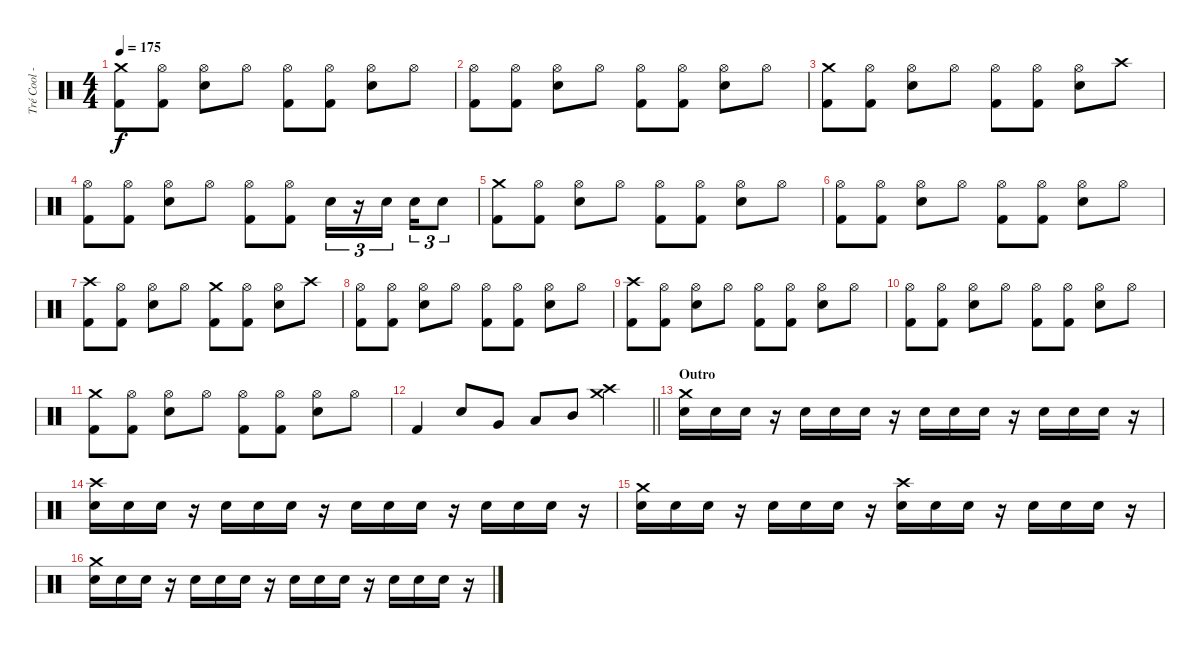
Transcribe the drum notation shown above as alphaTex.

\track ("Tré Cool - Drums" "Tré Cool -") {instrument percussion}
\staff {score}
\articulation defaults
\ts (4 4)
\tempo 175
\clef neutral
\ks c
("Crash medium (hit)" "Kick (hit) 2").8{dy f} ("Hi-Hat (open)" "Kick (hit) 2").8 ("Hi-Hat (open)" "Electric Snare (hit)").8 "Hi-Hat (open)".8 ("Hi-Hat (open)" "Kick (hit) 2").8 ("Hi-Hat (open)" "Kick (hit) 2").8 ("Hi-Hat (open)" "Electric Snare (hit)").8 "Hi-Hat (open)".8 |
("Hi-Hat (open)" "Kick (hit) 2").8 ("Hi-Hat (open)" "Kick (hit) 2").8 ("Hi-Hat (open)" "Electric Snare (hit)").8 "Hi-Hat (open)".8 ("Hi-Hat (open)" "Kick (hit) 2").8 ("Hi-Hat (open)" "Kick (hit) 2").8 ("Hi-Hat (open)" "Electric Snare (hit)").8 "Hi-Hat (open)".8 |
("Crash medium (hit)" "Kick (hit) 2").8 ("Hi-Hat (open)" "Kick (hit) 2").8 ("Hi-Hat (open)" "Electric Snare (hit)").8 "Hi-Hat (open)".8 ("Hi-Hat (open)" "Kick (hit) 2").8 ("Hi-Hat (open)" "Kick (hit) 2").8 ("Hi-Hat (open)" "Electric Snare (hit)").8 "Crash high (hit)".8 |
("Hi-Hat (open)" "Kick (hit) 2").8 ("Hi-Hat (open)" "Kick (hit) 2").8 ("Hi-Hat (open)" "Electric Snare (hit)").8 "Hi-Hat (open)".8 ("Hi-Hat (open)" "Kick (hit) 2").8 ("Hi-Hat (open)" "Kick (hit) 2").8 "Electric Snare (hit)".16{tu (3 2)} r.16{tu (3 2)} "Electric Snare (hit)".16{tu (3 2) beam splitsecondary} "Electric Snare (hit)".16{tu (3 2)} "Electric Snare (hit)".8{tu (3 2)} |
("Crash medium (hit)" "Kick (hit) 2").8 ("Hi-Hat (open)" "Kick (hit) 2").8 ("Hi-Hat (open)" "Electric Snare (hit)").8 "Hi-Hat (open)".8 ("Hi-Hat (open)" "Kick (hit) 2").8 ("Hi-Hat (open)" "Kick (hit) 2").8 ("Hi-Hat (open)" "Electric Snare (hit)").8 "Hi-Hat (open)".8 |
("Hi-Hat (open)" "Kick (hit) 2").8 ("Hi-Hat (open)" "Kick (hit) 2").8 ("Hi-Hat (open)" "Electric Snare (hit)").8 "Hi-Hat (open)".8 ("Hi-Hat (open)" "Kick (hit) 2").8 ("Hi-Hat (open)" "Kick (hit) 2").8 ("Hi-Hat (open)" "Electric Snare (hit)").8 "Hi-Hat (open)".8 |
("Crash high (hit)" "Kick (hit) 2").8 ("Hi-Hat (open)" "Kick (hit) 2").8 ("Hi-Hat (open)" "Electric Snare (hit)").8 "Hi-Hat (open)".8 ("Crash medium (hit)" "Kick (hit) 2").8 ("Hi-Hat (open)" "Kick (hit) 2").8 ("Hi-Hat (open)" "Electric Snare (hit)").8 "Crash high (hit)".8 |
("Hi-Hat (open)" "Kick (hit) 2").8 ("Hi-Hat (open)" "Kick (hit) 2").8 ("Hi-Hat (open)" "Electric Snare (hit)").8 "Hi-Hat (open)".8 ("Hi-Hat (open)" "Kick (hit) 2").8 ("Hi-Hat (open)" "Kick (hit) 2").8 ("Hi-Hat (open)" "Electric Snare (hit)").8 "Hi-Hat (open)".8 |
("Crash high (hit)" "Kick (hit) 2").8 ("Hi-Hat (open)" "Kick (hit) 2").8 ("Hi-Hat (open)" "Electric Snare (hit)").8 "Hi-Hat (open)".8 ("Hi-Hat (open)" "Kick (hit) 2").8 ("Hi-Hat (open)" "Kick (hit) 2").8 ("Hi-Hat (open)" "Electric Snare (hit)").8 "Hi-Hat (open)".8 |
("Hi-Hat (open)" "Kick (hit) 2").8 ("Hi-Hat (open)" "Kick (hit) 2").8 ("Hi-Hat (open)" "Electric Snare (hit)").8 "Hi-Hat (open)".8 ("Hi-Hat (open)" "Kick (hit) 2").8 ("Hi-Hat (open)" "Kick (hit) 2").8 ("Hi-Hat (open)" "Electric Snare (hit)").8 "Hi-Hat (open)".8 |
("Crash medium (hit)" "Kick (hit) 2").8 ("Hi-Hat (open)" "Kick (hit) 2").8 ("Hi-Hat (open)" "Electric Snare (hit)").8 "Hi-Hat (open)".8 ("Hi-Hat (open)" "Kick (hit) 2").8 ("Hi-Hat (open)" "Kick (hit) 2").8 ("Hi-Hat (open)" "Electric Snare (hit)").8 "Hi-Hat (open)".8 |
\barLineRight lightlight "Kick (hit) 2".4 "Electric Snare (hit)".8 "Very Low Tom (hit)".8 "Low Tom (hit)".8 "Mid Tom (hit)".8
("Crash high (hit)" "Crash medium (hit)").4 |
\section ("" "Outro")
("Crash medium (hit)" "Electric Snare (hit)").16 "Electric Snare (hit)".16 "Electric Snare (hit)".16 r.16 "Electric Snare (hit)".16 "Electric Snare (hit)".16 "Electric Snare (hit)".16 r.16 "Electric Snare (hit)".16 "Electric Snare (hit)".16 "Electric Snare (hit)".16 r.16 "Electric Snare (hit)".16 "Electric Snare (hit)".16 "Electric Snare (hit)".16 r.16 |
("Crash high (hit)" "Electric Snare (hit)").16 "Electric Snare (hit)".16 "Electric Snare (hit)".16 r.16 "Electric Snare (hit)".16 "Electric Snare (hit)".16 "Electric Snare (hit)".16 r.16 "Electric Snare (hit)".16 "Electric Snare (hit)".16 "Electric Snare (hit)".16 r.16 "Electric Snare (hit)".16 "Electric Snare (hit)".16 "Electric Snare (hit)".16 r.16 |
("Crash medium (hit)" "Electric Snare (hit)").16 "Electric Snare (hit)".16 "Electric Snare (hit)".16 r.16 "Electric Snare (hit)".16 "Electric Snare (hit)".16 "Electric Snare (hit)".16 r.16 ("Crash high (hit)" "Electric Snare (hit)").16 "Electric Snare (hit)".16 "Electric Snare (hit)".16 r.16 "Electric Snare (hit)".16 "Electric Snare (hit)".16 "Electric Snare (hit)".16 r.16 |
("Crash medium (hit)" "Electric Snare (hit)").16 "Electric Snare (hit)".16 "Electric Snare (hit)".16 r.16 "Electric Snare (hit)".16 "Electric Snare (hit)".16 "Electric Snare (hit)".16 r.16 "Electric Snare (hit)".16 "Electric Snare (hit)".16 "Electric Snare (hit)".16 r.16 "Electric Snare (hit)".16 "Electric Snare (hit)".16 "Electric Snare (hit)".16 r.16
